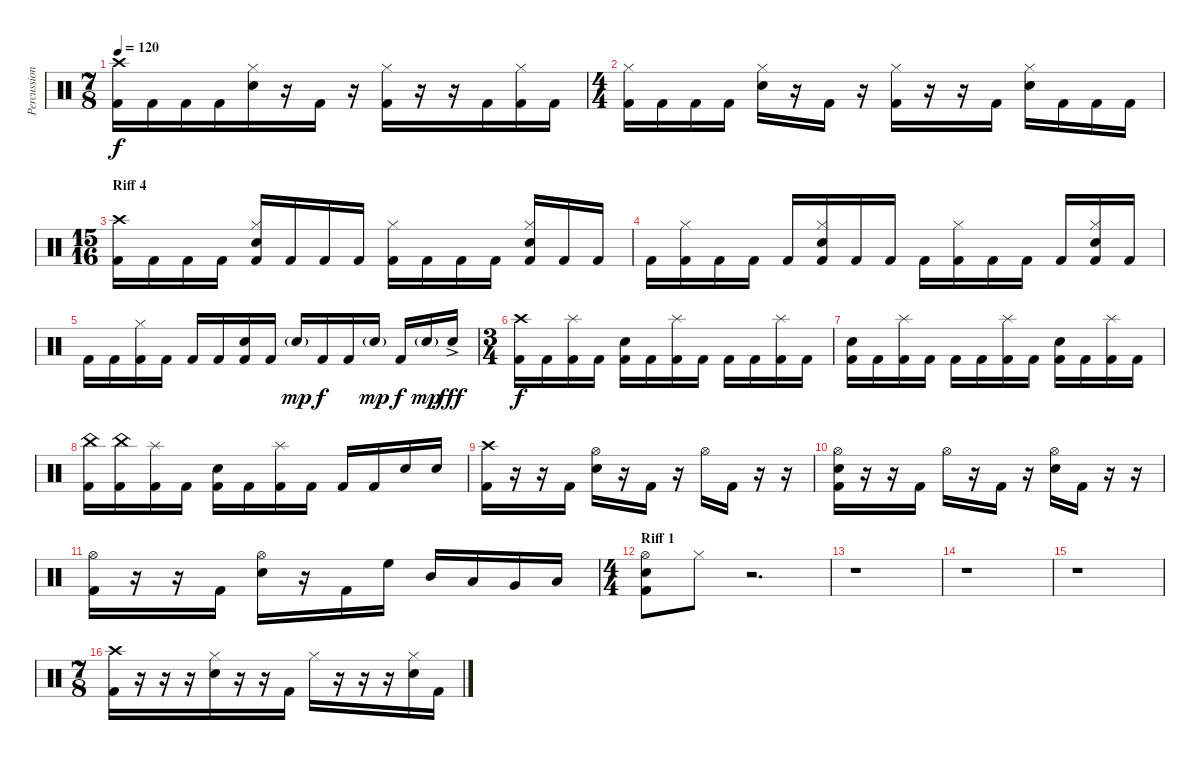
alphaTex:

\track ("Percussion" "Percussion") {instrument percussion}
\staff {score}
\articulation defaults
\ts (7 8)
\tempo 120
\clef neutral
\ks c
("Crash high (hit)" "Kick (hit) 2").16{dy f} "Kick (hit) 2".16 "Kick (hit) 2".16 "Kick (hit) 2".16 ("Hi-Hat (closed)" "Electric Snare (hit)").16 r.16 "Kick (hit) 2".16 r.16 ("Hi-Hat (closed)" "Kick (hit) 2").16 r.16 r.16 "Kick (hit) 2".16 ("Hi-Hat (closed)" "Kick (hit) 2").16 "Kick (hit) 2".16 |
\ts (4 4)
("Hi-Hat (closed)" "Kick (hit) 2").16 "Kick (hit) 2".16 "Kick (hit) 2".16 "Kick (hit) 2".16 ("Hi-Hat (closed)" "Electric Snare (hit)").16 r.16 "Kick (hit) 2".16 r.16 ("Hi-Hat (closed)" "Kick (hit) 2").16 r.16 r.16 "Kick (hit) 2".16 ("Hi-Hat (closed)" "Electric Snare (hit)").16 "Kick (hit) 2".16 "Kick (hit) 2".16 "Kick (hit) 2".16 |
\ts (15 16)
\section ("" "Riff 4")
("Crash high (hit)" "Kick (hit) 2").16 "Kick (hit) 2".16 "Kick (hit) 2".16 "Kick (hit) 2".16 ("Hi-Hat (closed)" "Electric Snare (hit)" "Kick (hit) 2").16 "Kick (hit) 2".16 "Kick (hit) 2".16 "Kick (hit) 2".16 ("Hi-Hat (closed)" "Kick (hit) 2").16 "Kick (hit) 2".16 "Kick (hit) 2".16 "Kick (hit) 2".16 ("Hi-Hat (closed)" "Electric Snare (hit)" "Kick (hit) 2").16 "Kick (hit) 2".16 "Kick (hit) 2".16 |
"Kick (hit) 2".16 ("Hi-Hat (closed)" "Kick (hit) 2").16 "Kick (hit) 2".16 "Kick (hit) 2".16 "Kick (hit) 2".16 ("Hi-Hat (closed)" "Electric Snare (hit)" "Kick (hit) 2").16 "Kick (hit) 2".16 "Kick (hit) 2".16 "Kick (hit) 2".16 ("Hi-Hat (closed)" "Kick (hit) 2").16 "Kick (hit) 2".16 "Kick (hit) 2".16 "Kick (hit) 2".16 ("Hi-Hat (closed)" "Electric Snare (hit)" "Kick (hit) 2").16 "Kick (hit) 2".16 |
"Kick (hit) 2".16 "Kick (hit) 2".16 ("Hi-Hat (closed)" "Kick (hit) 2").16 "Kick (hit) 2".16 "Kick (hit) 2".16 "Kick (hit) 2".16 ("Electric Snare (hit)" "Kick (hit) 2").16 "Kick (hit) 2".16 "Electric Snare (hit)"{g}.16{dy mp} "Kick (hit) 2".16{dy f} "Kick (hit) 2".16 "Electric Snare (hit)"{g}.16{dy mp} "Kick (hit) 2".16{dy f} "Electric Snare (hit)"{g}.16{dy mp} "Electric Snare (hit)"{ac}.16{dy fff} |
\ts (3 4)
("Crash high (hit)" "Kick (hit) 2").16{dy f} "Kick (hit) 2".16 ("Splash (hit)" "Kick (hit) 2").16 "Kick (hit) 2".16 ("Electric Snare (hit)" "Kick (hit) 2").16 "Kick (hit) 2".16 ("Splash (hit)" "Kick (hit) 2").16 "Kick (hit) 2".16 "Kick (hit) 2".16 "Kick (hit) 2".16 ("Splash (hit)" "Kick (hit) 2").16 "Kick (hit) 2".16 |
("Electric Snare (hit)" "Kick (hit) 2").16 "Kick (hit) 2".16 ("Splash (hit)" "Kick (hit) 2").16 "Kick (hit) 2".16 "Kick (hit) 2".16 "Kick (hit) 2".16 ("Splash (hit)" "Kick (hit) 2").16 "Kick (hit) 2".16 ("Electric Snare (hit)" "Kick (hit) 2").16 "Kick (hit) 2".16 ("Splash (hit)" "Kick (hit) 2").16 "Kick (hit) 2".16 |
("China (hit)" "Kick (hit) 2").16 ("China (hit)" "Kick (hit) 2").16 ("Splash (hit)" "Kick (hit) 2").16 "Kick (hit) 2".16 ("Electric Snare (hit)" "Kick (hit) 2").16 "Kick (hit) 2".16 ("Splash (hit)" "Kick (hit) 2").16 "Kick (hit) 2".16 "Kick (hit) 2".16 "Kick (hit) 2".16 "Electric Snare (hit)".16 "Electric Snare (hit)".16 |
("Crash high (hit)" "Kick (hit) 2").16 r.16 r.16 "Kick (hit) 2".16 ("Hi-Hat (open)" "Electric Snare (hit)").16 r.16 "Kick (hit) 2".16 r.16 "Hi-Hat (open)".16 "Kick (hit) 2".16 r.16 r.16 |
("Hi-Hat (open)" "Electric Snare (hit)" "Kick (hit) 2").16 r.16 r.16 "Kick (hit) 2".16 "Hi-Hat (open)".16 r.16 "Kick (hit) 2".16 r.16 ("Hi-Hat (open)" "Electric Snare (hit)").16 "Kick (hit) 2".16 r.16 r.16 |
("Hi-Hat (open)" "Kick (hit) 2").16 r.16 r.16 "Kick (hit) 2".16 ("Hi-Hat (open)" "Electric Snare (hit)").16 r.16 "Kick (hit) 2".16 "High Floor Tom (hit)".16 "Mid Tom (hit)".16 "Low Tom (hit)".16 "Very Low Tom (hit)".16 "Low Floor Tom (hit)".16 |
\ts (4 4)
\section ("" "Riff 1")
("Hi-Hat (open)" "Electric Snare (hit)" "Kick (hit) 2").8 "Hi-Hat (closed)".8 r.2{d} |
r.1 |
r.1 |
r.1 |
\ts (7 8)
("Crash high (hit)" "Kick (hit) 2").16 r.16 r.16 r.16 ("Hi-Hat (closed)" "Electric Snare (hit)").16 r.16 r.16 "Kick (hit) 2".16 "Hi-Hat (closed)".16 r.16 r.16 r.16 ("Hi-Hat (closed)" "Electric Snare (hit)").16 "Kick (hit) 2".16
